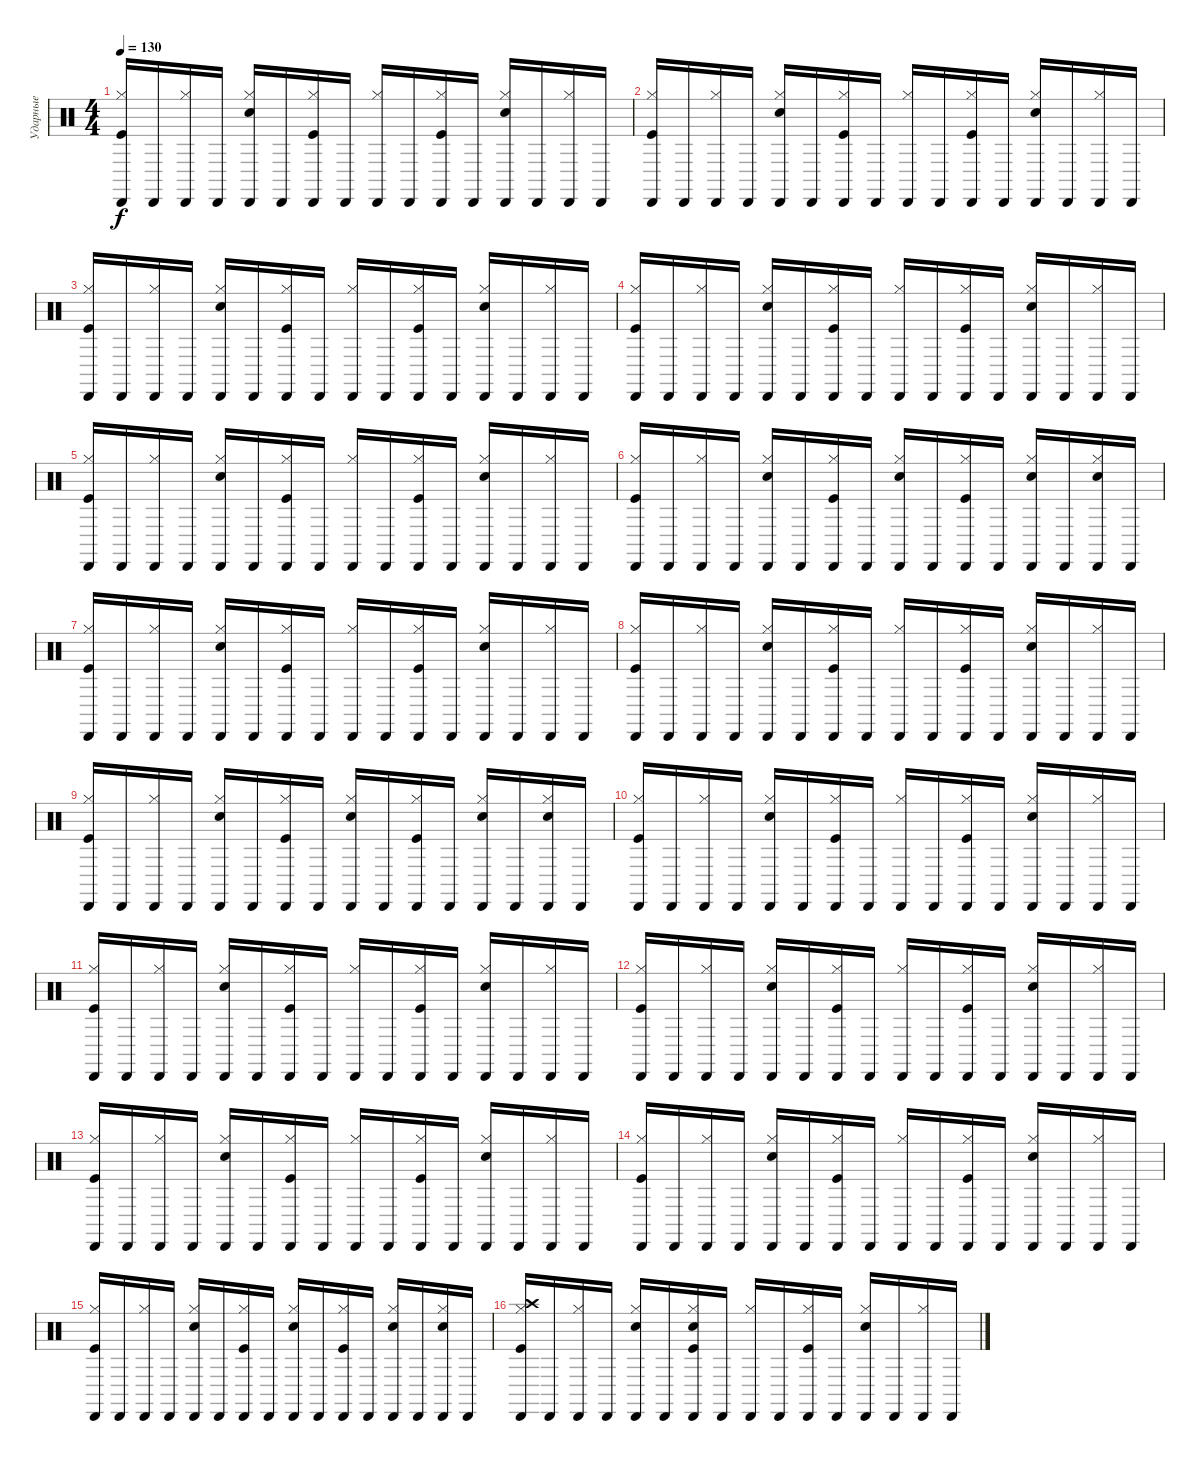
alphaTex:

\track ("Ударные" "Ударные") {instrument percussion}
\staff {score}
\articulation defaults
\ts (4 4)
\tempo 130
\clef neutral
\ks c
("Cabasa (hit)" "Hi-Hat (closed)" "Kick (hit)").16{dy f} "Cabasa (hit)".16 ("Cabasa (hit)" "Hi-Hat (closed)").16 "Cabasa (hit)".16 ("Cabasa (hit)" "Hi-Hat (closed)" "Electric Snare (hit)").16 "Cabasa (hit)".16 ("Cabasa (hit)" "Hi-Hat (closed)" "Kick (hit)").16 "Cabasa (hit)".16 ("Cabasa (hit)" "Hi-Hat (closed)").16 "Cabasa (hit)".16 ("Cabasa (hit)" "Hi-Hat (closed)" "Kick (hit)").16 "Cabasa (hit)".16 ("Cabasa (hit)" "Hi-Hat (closed)" "Electric Snare (hit)").16 "Cabasa (hit)".16 ("Cabasa (hit)" "Hi-Hat (closed)").16 "Cabasa (hit)".16 |
("Cabasa (hit)" "Hi-Hat (closed)" "Kick (hit)").16 "Cabasa (hit)".16 ("Cabasa (hit)" "Hi-Hat (closed)").16 "Cabasa (hit)".16 ("Cabasa (hit)" "Hi-Hat (closed)" "Electric Snare (hit)").16 "Cabasa (hit)".16 ("Cabasa (hit)" "Hi-Hat (closed)" "Kick (hit)").16 "Cabasa (hit)".16 ("Cabasa (hit)" "Hi-Hat (closed)").16 "Cabasa (hit)".16 ("Cabasa (hit)" "Hi-Hat (closed)" "Kick (hit)").16 "Cabasa (hit)".16 ("Cabasa (hit)" "Hi-Hat (closed)" "Electric Snare (hit)").16 "Cabasa (hit)".16 ("Cabasa (hit)" "Hi-Hat (closed)").16 "Cabasa (hit)".16 |
("Cabasa (hit)" "Hi-Hat (closed)" "Kick (hit)").16 "Cabasa (hit)".16 ("Cabasa (hit)" "Hi-Hat (closed)").16 "Cabasa (hit)".16 ("Cabasa (hit)" "Hi-Hat (closed)" "Electric Snare (hit)").16 "Cabasa (hit)".16 ("Cabasa (hit)" "Hi-Hat (closed)" "Kick (hit)").16 "Cabasa (hit)".16 ("Cabasa (hit)" "Hi-Hat (closed)").16 "Cabasa (hit)".16 ("Cabasa (hit)" "Hi-Hat (closed)" "Kick (hit)").16 "Cabasa (hit)".16 ("Cabasa (hit)" "Hi-Hat (closed)" "Electric Snare (hit)").16 "Cabasa (hit)".16 ("Cabasa (hit)" "Hi-Hat (closed)").16 "Cabasa (hit)".16 |
("Cabasa (hit)" "Hi-Hat (closed)" "Kick (hit)").16 "Cabasa (hit)".16 ("Cabasa (hit)" "Hi-Hat (closed)").16 "Cabasa (hit)".16 ("Cabasa (hit)" "Hi-Hat (closed)" "Electric Snare (hit)").16 "Cabasa (hit)".16 ("Cabasa (hit)" "Hi-Hat (closed)" "Kick (hit)").16 "Cabasa (hit)".16 ("Cabasa (hit)" "Hi-Hat (closed)").16 "Cabasa (hit)".16 ("Cabasa (hit)" "Hi-Hat (closed)" "Kick (hit)").16 "Cabasa (hit)".16 ("Cabasa (hit)" "Hi-Hat (closed)" "Electric Snare (hit)").16 "Cabasa (hit)".16 ("Cabasa (hit)" "Hi-Hat (closed)").16 "Cabasa (hit)".16 |
("Cabasa (hit)" "Hi-Hat (closed)" "Kick (hit)").16 "Cabasa (hit)".16 ("Cabasa (hit)" "Hi-Hat (closed)").16 "Cabasa (hit)".16 ("Cabasa (hit)" "Hi-Hat (closed)" "Electric Snare (hit)").16 "Cabasa (hit)".16 ("Cabasa (hit)" "Hi-Hat (closed)" "Kick (hit)").16 "Cabasa (hit)".16 ("Cabasa (hit)" "Hi-Hat (closed)").16 "Cabasa (hit)".16 ("Cabasa (hit)" "Hi-Hat (closed)" "Kick (hit)").16 "Cabasa (hit)".16 ("Cabasa (hit)" "Hi-Hat (closed)" "Electric Snare (hit)").16 "Cabasa (hit)".16 ("Cabasa (hit)" "Hi-Hat (closed)").16 "Cabasa (hit)".16 |
("Cabasa (hit)" "Hi-Hat (closed)" "Kick (hit)").16 "Cabasa (hit)".16 ("Cabasa (hit)" "Hi-Hat (closed)").16 "Cabasa (hit)".16 ("Cabasa (hit)" "Hi-Hat (closed)" "Electric Snare (hit)").16 "Cabasa (hit)".16 ("Cabasa (hit)" "Hi-Hat (closed)" "Kick (hit)").16 "Cabasa (hit)".16 ("Cabasa (hit)" "Hi-Hat (closed)" "Electric Snare (hit)").16 "Cabasa (hit)".16 ("Cabasa (hit)" "Hi-Hat (closed)" "Kick (hit)").16 "Cabasa (hit)".16 ("Cabasa (hit)" "Hi-Hat (closed)" "Electric Snare (hit)").16 "Cabasa (hit)".16 ("Cabasa (hit)" "Hi-Hat (closed)" "Electric Snare (hit)").16 "Cabasa (hit)".16 |
("Cabasa (hit)" "Hi-Hat (closed)" "Kick (hit)").16 "Cabasa (hit)".16 ("Cabasa (hit)" "Hi-Hat (closed)").16 "Cabasa (hit)".16 ("Cabasa (hit)" "Hi-Hat (closed)" "Electric Snare (hit)").16 "Cabasa (hit)".16 ("Cabasa (hit)" "Hi-Hat (closed)" "Kick (hit)").16 "Cabasa (hit)".16 ("Cabasa (hit)" "Hi-Hat (closed)").16 "Cabasa (hit)".16 ("Cabasa (hit)" "Hi-Hat (closed)" "Kick (hit)").16 "Cabasa (hit)".16 ("Cabasa (hit)" "Hi-Hat (closed)" "Electric Snare (hit)").16 "Cabasa (hit)".16 ("Cabasa (hit)" "Hi-Hat (closed)").16 "Cabasa (hit)".16 |
("Cabasa (hit)" "Hi-Hat (closed)" "Kick (hit)").16 "Cabasa (hit)".16 ("Cabasa (hit)" "Hi-Hat (closed)").16 "Cabasa (hit)".16 ("Cabasa (hit)" "Hi-Hat (closed)" "Electric Snare (hit)").16 "Cabasa (hit)".16 ("Cabasa (hit)" "Hi-Hat (closed)" "Kick (hit)").16 "Cabasa (hit)".16 ("Cabasa (hit)" "Hi-Hat (closed)").16 "Cabasa (hit)".16 ("Cabasa (hit)" "Hi-Hat (closed)" "Kick (hit)").16 "Cabasa (hit)".16 ("Cabasa (hit)" "Hi-Hat (closed)" "Electric Snare (hit)").16 "Cabasa (hit)".16 ("Cabasa (hit)" "Hi-Hat (closed)").16 "Cabasa (hit)".16 |
("Cabasa (hit)" "Hi-Hat (closed)" "Kick (hit)").16 "Cabasa (hit)".16 ("Cabasa (hit)" "Hi-Hat (closed)").16 "Cabasa (hit)".16 ("Cabasa (hit)" "Hi-Hat (closed)" "Electric Snare (hit)").16 "Cabasa (hit)".16 ("Cabasa (hit)" "Hi-Hat (closed)" "Kick (hit)").16 "Cabasa (hit)".16 ("Cabasa (hit)" "Hi-Hat (closed)" "Electric Snare (hit)").16 "Cabasa (hit)".16 ("Cabasa (hit)" "Hi-Hat (closed)" "Kick (hit)").16 "Cabasa (hit)".16 ("Cabasa (hit)" "Hi-Hat (closed)" "Electric Snare (hit)").16 "Cabasa (hit)".16 ("Cabasa (hit)" "Hi-Hat (closed)" "Electric Snare (hit)").16 "Cabasa (hit)".16 |
("Cabasa (hit)" "Hi-Hat (closed)" "Kick (hit)").16 "Cabasa (hit)".16 ("Cabasa (hit)" "Hi-Hat (closed)").16 "Cabasa (hit)".16 ("Cabasa (hit)" "Hi-Hat (closed)" "Electric Snare (hit)").16 "Cabasa (hit)".16 ("Cabasa (hit)" "Hi-Hat (closed)" "Kick (hit)").16 "Cabasa (hit)".16 ("Cabasa (hit)" "Hi-Hat (closed)").16 "Cabasa (hit)".16 ("Cabasa (hit)" "Hi-Hat (closed)" "Kick (hit)").16 "Cabasa (hit)".16 ("Cabasa (hit)" "Hi-Hat (closed)" "Electric Snare (hit)").16 "Cabasa (hit)".16 ("Cabasa (hit)" "Hi-Hat (closed)").16 "Cabasa (hit)".16 |
("Cabasa (hit)" "Hi-Hat (closed)" "Kick (hit)").16 "Cabasa (hit)".16 ("Cabasa (hit)" "Hi-Hat (closed)").16 "Cabasa (hit)".16 ("Cabasa (hit)" "Hi-Hat (closed)" "Electric Snare (hit)").16 "Cabasa (hit)".16 ("Cabasa (hit)" "Hi-Hat (closed)" "Kick (hit)").16 "Cabasa (hit)".16 ("Cabasa (hit)" "Hi-Hat (closed)").16 "Cabasa (hit)".16 ("Cabasa (hit)" "Hi-Hat (closed)" "Kick (hit)").16 "Cabasa (hit)".16 ("Cabasa (hit)" "Hi-Hat (closed)" "Electric Snare (hit)").16 "Cabasa (hit)".16 ("Cabasa (hit)" "Hi-Hat (closed)").16 "Cabasa (hit)".16 |
("Cabasa (hit)" "Hi-Hat (closed)" "Kick (hit)").16 "Cabasa (hit)".16 ("Cabasa (hit)" "Hi-Hat (closed)").16 "Cabasa (hit)".16 ("Cabasa (hit)" "Hi-Hat (closed)" "Electric Snare (hit)").16 "Cabasa (hit)".16 ("Cabasa (hit)" "Hi-Hat (closed)" "Kick (hit)").16 "Cabasa (hit)".16 ("Cabasa (hit)" "Hi-Hat (closed)").16 "Cabasa (hit)".16 ("Cabasa (hit)" "Hi-Hat (closed)" "Kick (hit)").16 "Cabasa (hit)".16 ("Cabasa (hit)" "Hi-Hat (closed)" "Electric Snare (hit)").16 "Cabasa (hit)".16 ("Cabasa (hit)" "Hi-Hat (closed)").16 "Cabasa (hit)".16 |
("Cabasa (hit)" "Hi-Hat (closed)" "Kick (hit)").16 "Cabasa (hit)".16 ("Cabasa (hit)" "Hi-Hat (closed)").16 "Cabasa (hit)".16 ("Cabasa (hit)" "Hi-Hat (closed)" "Electric Snare (hit)").16 "Cabasa (hit)".16 ("Cabasa (hit)" "Hi-Hat (closed)" "Kick (hit)").16 "Cabasa (hit)".16 ("Cabasa (hit)" "Hi-Hat (closed)").16 "Cabasa (hit)".16 ("Cabasa (hit)" "Hi-Hat (closed)" "Kick (hit)").16 "Cabasa (hit)".16 ("Cabasa (hit)" "Hi-Hat (closed)" "Electric Snare (hit)").16 "Cabasa (hit)".16 ("Cabasa (hit)" "Hi-Hat (closed)").16 "Cabasa (hit)".16 |
("Cabasa (hit)" "Hi-Hat (closed)" "Kick (hit)").16 "Cabasa (hit)".16 ("Cabasa (hit)" "Hi-Hat (closed)").16 "Cabasa (hit)".16 ("Cabasa (hit)" "Hi-Hat (closed)" "Electric Snare (hit)").16 "Cabasa (hit)".16 ("Cabasa (hit)" "Hi-Hat (closed)" "Kick (hit)").16 "Cabasa (hit)".16 ("Cabasa (hit)" "Hi-Hat (closed)").16 "Cabasa (hit)".16 ("Cabasa (hit)" "Hi-Hat (closed)" "Kick (hit)").16 "Cabasa (hit)".16 ("Cabasa (hit)" "Hi-Hat (closed)" "Electric Snare (hit)").16 "Cabasa (hit)".16 ("Cabasa (hit)" "Hi-Hat (closed)").16 "Cabasa (hit)".16 |
("Cabasa (hit)" "Hi-Hat (closed)" "Kick (hit)").16 "Cabasa (hit)".16 ("Cabasa (hit)" "Hi-Hat (closed)").16 "Cabasa (hit)".16 ("Cabasa (hit)" "Hi-Hat (closed)" "Electric Snare (hit)").16 "Cabasa (hit)".16 ("Cabasa (hit)" "Hi-Hat (closed)" "Kick (hit)").16 "Cabasa (hit)".16 ("Cabasa (hit)" "Hi-Hat (closed)" "Electric Snare (hit)").16 "Cabasa (hit)".16 ("Cabasa (hit)" "Hi-Hat (closed)" "Kick (hit)").16 "Cabasa (hit)".16 ("Cabasa (hit)" "Hi-Hat (closed)" "Electric Snare (hit)").16 "Cabasa (hit)".16 ("Cabasa (hit)" "Hi-Hat (closed)" "Electric Snare (hit)").16 "Cabasa (hit)".16 |
("Cabasa (hit)" "Crash high (hit)" "Hi-Hat (closed)" "Kick (hit)").16 "Cabasa (hit)".16 ("Cabasa (hit)" "Hi-Hat (closed)").16 "Cabasa (hit)".16 ("Cabasa (hit)" "Hi-Hat (closed)" "Electric Snare (hit)").16 "Cabasa (hit)".16 ("Cabasa (hit)" "Hi-Hat (closed)" "Kick (hit)" "Electric Snare (hit)").16 "Cabasa (hit)".16 ("Cabasa (hit)" "Hi-Hat (closed)").16 "Cabasa (hit)".16 ("Cabasa (hit)" "Hi-Hat (closed)" "Kick (hit)").16 "Cabasa (hit)".16 ("Cabasa (hit)" "Hi-Hat (closed)" "Electric Snare (hit)").16 "Cabasa (hit)".16 ("Cabasa (hit)" "Hi-Hat (closed)").16 "Cabasa (hit)".16
